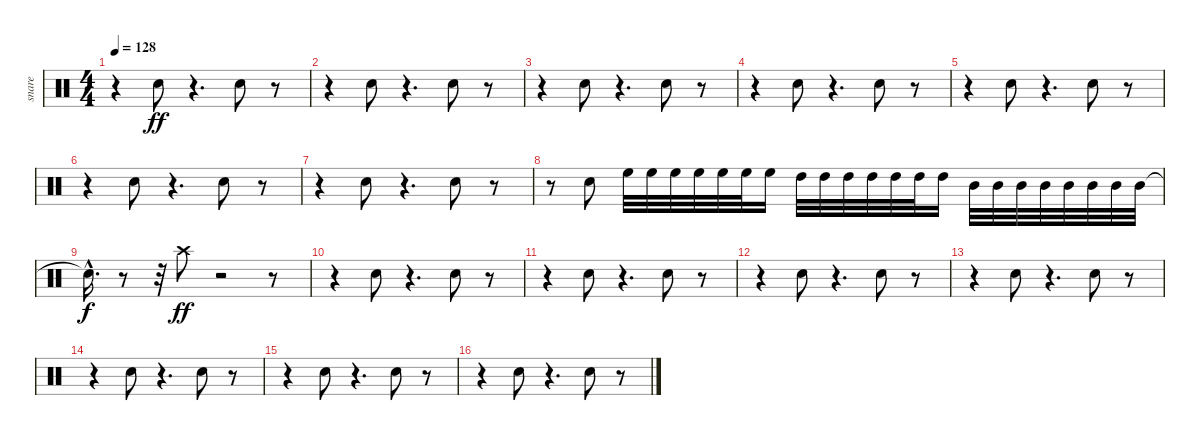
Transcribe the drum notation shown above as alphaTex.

\track ("snare" "snare") {instrument percussion}
\staff {score}
\articulation defaults
\ts (4 4)
\tempo 128
\clef neutral
\ks c
r.4{dy ff} "Electric Snare (hit)".8 r.4{d} "Electric Snare (hit)".8 r.8 |
r.4 "Electric Snare (hit)".8 r.4{d} "Electric Snare (hit)".8 r.8 |
r.4 "Electric Snare (hit)".8 r.4{d} "Electric Snare (hit)".8 r.8 |
r.4 "Electric Snare (hit)".8 r.4{d} "Electric Snare (hit)".8 r.8 |
r.4 "Electric Snare (hit)".8 r.4{d} "Electric Snare (hit)".8 r.8 |
r.4 "Electric Snare (hit)".8 r.4{d} "Electric Snare (hit)".8 r.8 |
r.4 "Electric Snare (hit)".8 r.4{d} "Electric Snare (hit)".8 r.8 |
r.8 "Electric Snare (hit)".8 "High Floor Tom (hit)".32 "High Floor Tom (hit)".32 "High Floor Tom (hit)".32 "High Floor Tom (hit)".32 "High Floor Tom (hit)".32 "High Floor Tom (hit)".32 "High Floor Tom (hit)".16 "High Tom (hit)".32 "High Tom (hit)".32 "High Tom (hit)".32 "High Tom (hit)".32 "High Tom (hit)".32 "High Tom (hit)".32 "High Tom (hit)".16 "Mid Tom (hit)".32 "Mid Tom (hit)".32 "Mid Tom (hit)".32 "Mid Tom (hit)".32 "Mid Tom (hit)".32 "Mid Tom (hit)".32 "Mid Tom (hit)".32 "Mid Tom (hit)".32 |
"Snare (hit)"{hac t}.16{d dy f} r.8 r.32 "Crash high (hit)".8{dy ff} r.2 r.8 |
r.4 "Electric Snare (hit)".8 r.4{d} "Electric Snare (hit)".8 r.8 |
r.4 "Electric Snare (hit)".8 r.4{d} "Electric Snare (hit)".8 r.8 |
r.4 "Electric Snare (hit)".8 r.4{d} "Electric Snare (hit)".8 r.8 |
r.4 "Electric Snare (hit)".8 r.4{d} "Electric Snare (hit)".8 r.8 |
r.4 "Electric Snare (hit)".8 r.4{d} "Electric Snare (hit)".8 r.8 |
r.4 "Electric Snare (hit)".8 r.4{d} "Electric Snare (hit)".8 r.8 |
r.4 "Electric Snare (hit)".8 r.4{d} "Electric Snare (hit)".8 r.8
